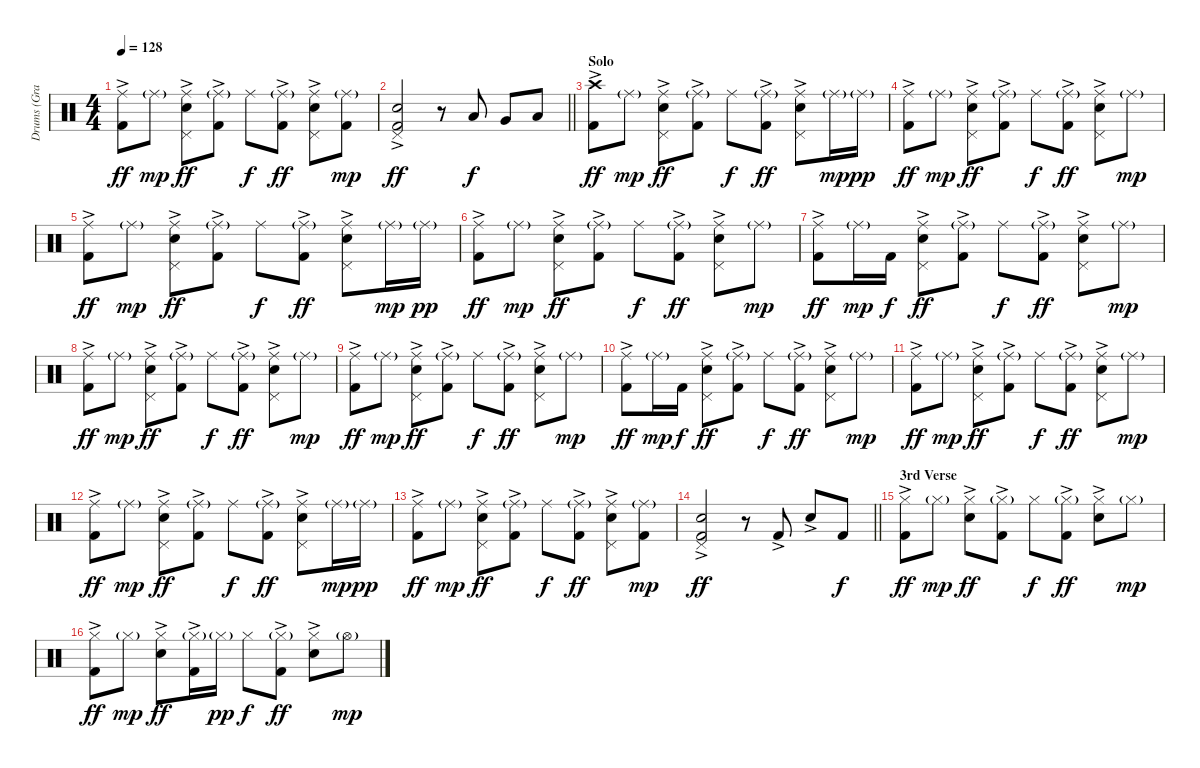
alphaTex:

\track ("Drums (Graham)" "Drums (Gra") {instrument percussion}
\staff {score}
\articulation defaults
\ts (4 4)
\tempo 128
\clef neutral
\ks c
("Ride (middle)" "Kick (hit) 2"{ac}).8{dy ff} "Ride (middle)"{g}.8{dy mp} ("Ride (middle)" "Pedal Hi-Hat (hit)" "Snare (hit) 2"{ac}).8{dy ff} ("Ride (middle)"{g} "Kick (hit) 2"{ac}).8 "Ride (middle)".8{dy f} ("Ride (middle)"{g} "Kick (hit) 2"{ac}).8{dy ff} ("Ride (middle)" "Pedal Hi-Hat (hit)" "Snare (hit) 2"{ac}).8 ("Ride (middle)"{g} "Kick (hit) 2").8{dy mp} |
\barLineRight lightlight
("Pedal Hi-Hat (hit)" "Snare (hit) 2" "Kick (hit) 2"{ac}).2{dy ff} r.8 "Low Tom (hit)".8{dy f} "Very Low Tom (hit)".8 "Low Floor Tom (hit)".8 |
\section ("" "Solo")
("Crash high (hit)" "Kick (hit) 2"{ac}).8{dy ff} "Ride (middle)"{g}.8{dy mp} ("Ride (middle)" "Pedal Hi-Hat (hit)" "Snare (hit) 2"{ac}).8{dy ff} ("Ride (middle)"{g} "Kick (hit) 2"{ac}).8 "Ride (middle)".8{dy f} ("Ride (middle)"{g} "Kick (hit) 2"{ac}).8{dy ff} ("Ride (middle)" "Pedal Hi-Hat (hit)" "Snare (hit) 2"{ac}).8 "Ride (middle)"{g}.16{dy mp} "Ride (middle)"{g}.16{dy pp} |
("Ride (middle)" "Kick (hit) 2"{ac}).8{dy ff} "Ride (middle)"{g}.8{dy mp} ("Ride (middle)" "Pedal Hi-Hat (hit)" "Snare (hit) 2"{ac}).8{dy ff} ("Ride (middle)"{g} "Kick (hit) 2"{ac}).8 "Ride (middle)".8{dy f} ("Ride (middle)"{g} "Kick (hit) 2"{ac}).8{dy ff} ("Ride (middle)" "Pedal Hi-Hat (hit)" "Snare (hit) 2"{ac}).8 "Ride (middle)"{g}.8{dy mp} |
("Ride (middle)" "Kick (hit) 2"{ac}).8{dy ff} "Ride (middle)"{g}.8{dy mp} ("Ride (middle)" "Pedal Hi-Hat (hit)" "Snare (hit) 2"{ac}).8{dy ff} ("Ride (middle)"{g} "Kick (hit) 2"{ac}).8 "Ride (middle)".8{dy f} ("Ride (middle)"{g} "Kick (hit) 2"{ac}).8{dy ff} ("Ride (middle)" "Pedal Hi-Hat (hit)" "Snare (hit) 2"{ac}).8 "Ride (middle)"{g}.16{dy mp} "Ride (middle)"{g}.16{dy pp} |
("Ride (middle)" "Kick (hit) 2"{ac}).8{dy ff} "Ride (middle)"{g}.8{dy mp} ("Ride (middle)" "Pedal Hi-Hat (hit)" "Snare (hit) 2"{ac}).8{dy ff} ("Ride (middle)"{g} "Kick (hit) 2"{ac}).8 "Ride (middle)".8{dy f} ("Ride (middle)"{g} "Kick (hit) 2"{ac}).8{dy ff} ("Ride (middle)" "Pedal Hi-Hat (hit)" "Snare (hit) 2"{ac}).8 "Ride (middle)"{g}.8{dy mp} |
("Ride (middle)" "Kick (hit) 2"{ac}).8{dy ff} "Ride (middle)"{g}.16{dy mp} "Kick (hit) 2".16{dy f} ("Ride (middle)" "Pedal Hi-Hat (hit)" "Snare (hit) 2"{ac}).8{dy ff} ("Ride (middle)"{g} "Kick (hit) 2"{ac}).8 "Ride (middle)".8{dy f} ("Ride (middle)"{g} "Kick (hit) 2"{ac}).8{dy ff} ("Ride (middle)" "Pedal Hi-Hat (hit)" "Snare (hit) 2"{ac}).8 "Ride (middle)"{g}.8{dy mp} |
("Ride (middle)" "Kick (hit) 2"{ac}).8{dy ff} "Ride (middle)"{g}.8{dy mp} ("Ride (middle)" "Pedal Hi-Hat (hit)" "Snare (hit) 2"{ac}).8{dy ff} ("Ride (middle)"{g} "Kick (hit) 2"{ac}).8 "Ride (middle)".8{dy f} ("Ride (middle)"{g} "Kick (hit) 2"{ac}).8{dy ff} ("Ride (middle)" "Pedal Hi-Hat (hit)" "Snare (hit) 2"{ac}).8 "Ride (middle)"{g}.8{dy mp} |
("Ride (middle)" "Kick (hit) 2"{ac}).8{dy ff} "Ride (middle)"{g}.8{dy mp} ("Ride (middle)" "Pedal Hi-Hat (hit)" "Snare (hit) 2"{ac}).8{dy ff} ("Ride (middle)"{g} "Kick (hit) 2"{ac}).8 "Ride (middle)".8{dy f} ("Ride (middle)"{g} "Kick (hit) 2"{ac}).8{dy ff} ("Ride (middle)" "Pedal Hi-Hat (hit)" "Snare (hit) 2"{ac}).8 "Ride (middle)"{g}.8{dy mp} |
("Ride (middle)" "Kick (hit) 2"{ac}).8{dy ff} "Ride (middle)"{g}.16{dy mp} "Kick (hit) 2".16{dy f} ("Ride (middle)" "Pedal Hi-Hat (hit)" "Snare (hit) 2"{ac}).8{dy ff} ("Ride (middle)"{g} "Kick (hit) 2"{ac}).8 "Ride (middle)".8{dy f} ("Ride (middle)"{g} "Kick (hit) 2"{ac}).8{dy ff} ("Ride (middle)" "Pedal Hi-Hat (hit)" "Snare (hit) 2"{ac}).8 "Ride (middle)"{g}.8{dy mp} |
("Ride (middle)" "Kick (hit) 2"{ac}).8{dy ff} "Ride (middle)"{g}.8{dy mp} ("Ride (middle)" "Pedal Hi-Hat (hit)" "Snare (hit) 2"{ac}).8{dy ff} ("Ride (middle)"{g} "Kick (hit) 2"{ac}).8 "Ride (middle)".8{dy f} ("Ride (middle)"{g} "Kick (hit) 2"{ac}).8{dy ff} ("Ride (middle)" "Pedal Hi-Hat (hit)" "Snare (hit) 2"{ac}).8 "Ride (middle)"{g}.8{dy mp} |
("Ride (middle)" "Kick (hit) 2"{ac}).8{dy ff} "Ride (middle)"{g}.8{dy mp} ("Ride (middle)" "Pedal Hi-Hat (hit)" "Snare (hit) 2"{ac}).8{dy ff} ("Ride (middle)"{g} "Kick (hit) 2"{ac}).8 "Ride (middle)".8{dy f} ("Ride (middle)"{g} "Kick (hit) 2"{ac}).8{dy ff} ("Ride (middle)" "Pedal Hi-Hat (hit)" "Snare (hit) 2"{ac}).8 "Ride (middle)"{g}.16{dy mp} "Ride (middle)"{g}.16{dy pp} |
("Ride (middle)" "Kick (hit) 2"{ac}).8{dy ff} "Ride (middle)"{g}.8{dy mp} ("Ride (middle)" "Pedal Hi-Hat (hit)" "Snare (hit) 2"{ac}).8{dy ff} ("Ride (middle)"{g} "Kick (hit) 2"{ac}).8 "Ride (middle)".8{dy f} ("Ride (middle)"{g} "Kick (hit) 2"{ac}).8{dy ff} ("Ride (middle)" "Pedal Hi-Hat (hit)" "Snare (hit) 2"{ac}).8 ("Ride (middle)"{g} "Kick (hit) 2").8{dy mp} |
\barLineRight lightlight
("Pedal Hi-Hat (hit)" "Snare (hit) 2" "Kick (hit) 2"{ac}).2{dy ff} r.8 "Kick (hit) 2"{ac}.8 "Snare (hit) 2"{ac}.8 "Kick (hit) 2".8{dy f} |
\section ("" "3rd Verse")
("Hi-Hat (closed)" "Kick (hit) 2"{ac}).8{dy ff} "Hi-Hat (closed)"{g}.8{dy mp} ("Hi-Hat (closed)" "Snare (hit) 2"{ac}).8{dy ff} ("Hi-Hat (closed)"{g} "Kick (hit) 2"{ac}).8 "Hi-Hat (closed)".8{dy f} ("Hi-Hat (closed)"{g} "Kick (hit) 2"{ac}).8{dy ff} ("Hi-Hat (closed)" "Snare (hit) 2"{ac}).8 "Hi-Hat (closed)"{g}.8{dy mp} |
("Hi-Hat (closed)" "Kick (hit) 2"{ac}).8{dy ff} "Hi-Hat (closed)"{g}.8{dy mp} ("Hi-Hat (closed)" "Snare (hit) 2"{ac}).8{dy ff} ("Hi-Hat (closed)"{g} "Kick (hit) 2"{ac}).16 "Hi-Hat (closed)"{g}.16{dy pp} "Hi-Hat (closed)".8{dy f} ("Hi-Hat (closed)"{g} "Kick (hit) 2"{ac}).8{dy ff} ("Hi-Hat (closed)" "Snare (hit) 2"{ac}).8 "Hi-Hat (open)"{g}.8{dy mp}
